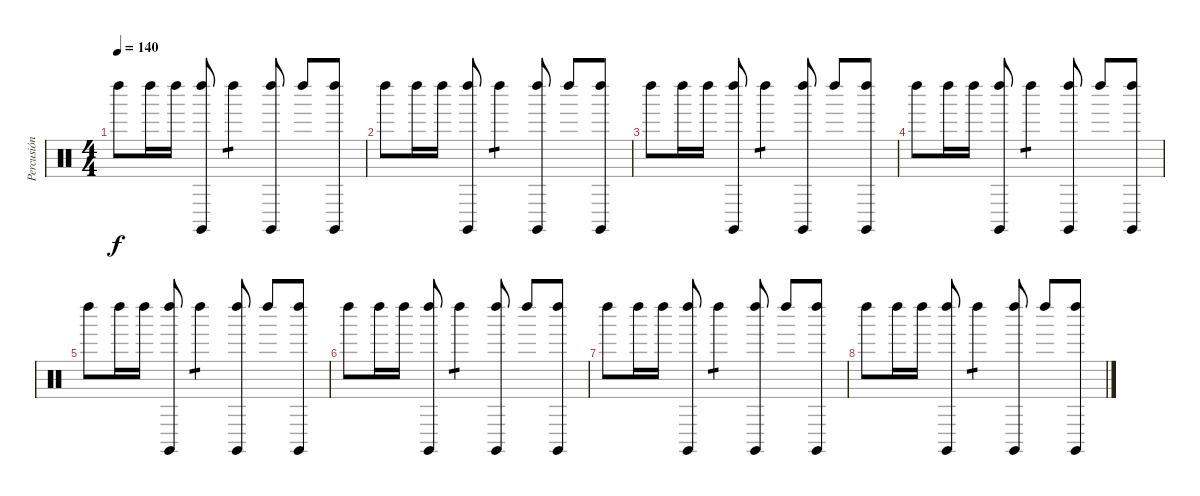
\track ("Percusión" "Percusión") {instrument percussion}
\staff {score}
\articulation defaults
\ts (4 4)
\tempo 140
\clef neutral
\ks c "Left Maraca (hit)".8{dy f} "Left Maraca (hit)".16 "Left Maraca (hit)".16
("Left Maraca (hit)" "Claves (hit)").8 "Left Maraca (hit)".4{tp 1} ("Left Maraca (hit)" "Claves (hit)").8 "Left Maraca (hit)".8 ("Left Maraca (hit)" "Claves (hit)").8 |
"Left Maraca (hit)".8 "Left Maraca (hit)".16 "Left Maraca (hit)".16 ("Left Maraca (hit)" "Claves (hit)").8 "Left Maraca (hit)".4{tp 1} ("Left Maraca (hit)" "Claves (hit)").8 "Left Maraca (hit)".8 ("Left Maraca (hit)" "Claves (hit)").8 |
"Left Maraca (hit)".8 "Left Maraca (hit)".16 "Left Maraca (hit)".16 ("Left Maraca (hit)" "Claves (hit)").8 "Left Maraca (hit)".4{tp 1} ("Left Maraca (hit)" "Claves (hit)").8 "Left Maraca (hit)".8 ("Left Maraca (hit)" "Claves (hit)").8 |
"Left Maraca (hit)".8 "Left Maraca (hit)".16 "Left Maraca (hit)".16 ("Left Maraca (hit)" "Claves (hit)").8 "Left Maraca (hit)".4{tp 1} ("Left Maraca (hit)" "Claves (hit)").8 "Left Maraca (hit)".8 ("Left Maraca (hit)" "Claves (hit)").8 |
"Left Maraca (hit)".8 "Left Maraca (hit)".16 "Left Maraca (hit)".16 ("Left Maraca (hit)" "Claves (hit)").8 "Left Maraca (hit)".4{tp 1} ("Left Maraca (hit)" "Claves (hit)").8 "Left Maraca (hit)".8 ("Left Maraca (hit)" "Claves (hit)").8 |
"Left Maraca (hit)".8 "Left Maraca (hit)".16 "Left Maraca (hit)".16 ("Left Maraca (hit)" "Claves (hit)").8 "Left Maraca (hit)".4{tp 1} ("Left Maraca (hit)" "Claves (hit)").8 "Left Maraca (hit)".8 ("Left Maraca (hit)" "Claves (hit)").8 |
"Left Maraca (hit)".8 "Left Maraca (hit)".16 "Left Maraca (hit)".16 ("Left Maraca (hit)" "Claves (hit)").8 "Left Maraca (hit)".4{tp 1} ("Left Maraca (hit)" "Claves (hit)").8 "Left Maraca (hit)".8 ("Left Maraca (hit)" "Claves (hit)").8 |
"Left Maraca (hit)".8 "Left Maraca (hit)".16 "Left Maraca (hit)".16 ("Left Maraca (hit)" "Claves (hit)").8 "Left Maraca (hit)".4{tp 1} ("Left Maraca (hit)" "Claves (hit)").8 "Left Maraca (hit)".8 ("Left Maraca (hit)" "Claves (hit)").8
